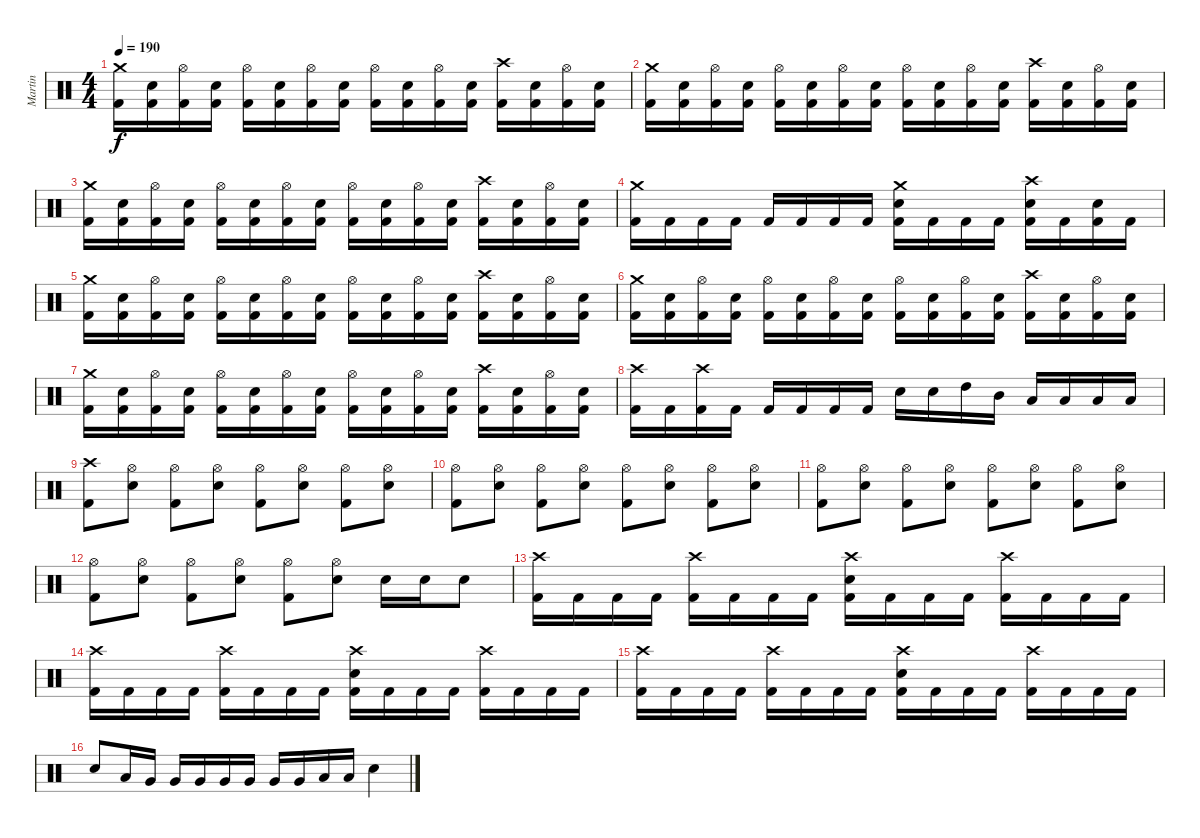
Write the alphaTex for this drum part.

\track ("Martin" "Martin") {instrument percussion}
\staff {score}
\articulation defaults
\ts (4 4)
\tempo 190
\clef neutral
\ks c
("Crash medium (hit)" "Kick (hit) 2").16{dy f} ("Snare (hit) 2" "Kick (hit) 2").16 ("Hi-Hat (open)" "Kick (hit) 2").16 ("Snare (hit) 2" "Kick (hit) 2").16 ("Hi-Hat (open)" "Kick (hit) 2").16 ("Snare (hit) 2" "Kick (hit) 2").16 ("Hi-Hat (open)" "Kick (hit) 2").16 ("Snare (hit) 2" "Kick (hit) 2").16 ("Hi-Hat (open)" "Kick (hit) 2").16 ("Snare (hit) 2" "Kick (hit) 2").16 ("Hi-Hat (open)" "Kick (hit) 2").16 ("Snare (hit) 2" "Kick (hit) 2").16 ("Crash high (hit)" "Kick (hit) 2").16 ("Snare (hit) 2" "Kick (hit) 2").16 ("Hi-Hat (open)" "Kick (hit) 2").16 ("Snare (hit) 2" "Kick (hit) 2").16 |
("Crash medium (hit)" "Kick (hit) 2").16 ("Snare (hit) 2" "Kick (hit) 2").16 ("Hi-Hat (open)" "Kick (hit) 2").16 ("Snare (hit) 2" "Kick (hit) 2").16 ("Hi-Hat (open)" "Kick (hit) 2").16 ("Snare (hit) 2" "Kick (hit) 2").16 ("Hi-Hat (open)" "Kick (hit) 2").16 ("Snare (hit) 2" "Kick (hit) 2").16 ("Hi-Hat (open)" "Kick (hit) 2").16 ("Snare (hit) 2" "Kick (hit) 2").16 ("Hi-Hat (open)" "Kick (hit) 2").16 ("Snare (hit) 2" "Kick (hit) 2").16 ("Crash high (hit)" "Kick (hit) 2").16 ("Snare (hit) 2" "Kick (hit) 2").16 ("Hi-Hat (open)" "Kick (hit) 2").16 ("Snare (hit) 2" "Kick (hit) 2").16 |
("Crash medium (hit)" "Kick (hit) 2").16 ("Snare (hit) 2" "Kick (hit) 2").16 ("Hi-Hat (open)" "Kick (hit) 2").16 ("Snare (hit) 2" "Kick (hit) 2").16 ("Hi-Hat (open)" "Kick (hit) 2").16 ("Snare (hit) 2" "Kick (hit) 2").16 ("Hi-Hat (open)" "Kick (hit) 2").16 ("Snare (hit) 2" "Kick (hit) 2").16 ("Hi-Hat (open)" "Kick (hit) 2").16 ("Snare (hit) 2" "Kick (hit) 2").16 ("Hi-Hat (open)" "Kick (hit) 2").16 ("Snare (hit) 2" "Kick (hit) 2").16 ("Crash high (hit)" "Kick (hit) 2").16 ("Snare (hit) 2" "Kick (hit) 2").16 ("Hi-Hat (open)" "Kick (hit) 2").16 ("Snare (hit) 2" "Kick (hit) 2").16 |
("Crash medium (hit)" "Kick (hit) 2").16 "Kick (hit) 2".16 "Kick (hit) 2".16 "Kick (hit) 2".16 "Kick (hit) 2".16 "Kick (hit) 2".16 "Kick (hit) 2".16 "Kick (hit) 2".16 ("Crash medium (hit)" "Snare (hit) 2" "Kick (hit) 2").16 "Kick (hit) 2".16 "Kick (hit) 2".16 "Kick (hit) 2".16 ("Crash high (hit)" "Snare (hit) 2" "Kick (hit) 2").16 "Kick (hit) 2".16 ("Snare (hit) 2" "Kick (hit) 2").16 "Kick (hit) 2".16 |
("Crash medium (hit)" "Kick (hit) 2").16 ("Snare (hit) 2" "Kick (hit) 2").16 ("Hi-Hat (open)" "Kick (hit) 2").16 ("Snare (hit) 2" "Kick (hit) 2").16 ("Hi-Hat (open)" "Kick (hit) 2").16 ("Snare (hit) 2" "Kick (hit) 2").16 ("Hi-Hat (open)" "Kick (hit) 2").16 ("Snare (hit) 2" "Kick (hit) 2").16 ("Hi-Hat (open)" "Kick (hit) 2").16 ("Snare (hit) 2" "Kick (hit) 2").16 ("Hi-Hat (open)" "Kick (hit) 2").16 ("Snare (hit) 2" "Kick (hit) 2").16 ("Crash high (hit)" "Kick (hit) 2").16 ("Snare (hit) 2" "Kick (hit) 2").16 ("Hi-Hat (open)" "Kick (hit) 2").16 ("Snare (hit) 2" "Kick (hit) 2").16 |
("Crash medium (hit)" "Kick (hit) 2").16 ("Snare (hit) 2" "Kick (hit) 2").16 ("Hi-Hat (open)" "Kick (hit) 2").16 ("Snare (hit) 2" "Kick (hit) 2").16 ("Hi-Hat (open)" "Kick (hit) 2").16 ("Snare (hit) 2" "Kick (hit) 2").16 ("Hi-Hat (open)" "Kick (hit) 2").16 ("Snare (hit) 2" "Kick (hit) 2").16 ("Hi-Hat (open)" "Kick (hit) 2").16 ("Snare (hit) 2" "Kick (hit) 2").16 ("Hi-Hat (open)" "Kick (hit) 2").16 ("Snare (hit) 2" "Kick (hit) 2").16 ("Crash high (hit)" "Kick (hit) 2").16 ("Snare (hit) 2" "Kick (hit) 2").16 ("Hi-Hat (open)" "Kick (hit) 2").16 ("Snare (hit) 2" "Kick (hit) 2").16 |
("Crash medium (hit)" "Kick (hit) 2").16 ("Snare (hit) 2" "Kick (hit) 2").16 ("Hi-Hat (open)" "Kick (hit) 2").16 ("Snare (hit) 2" "Kick (hit) 2").16 ("Hi-Hat (open)" "Kick (hit) 2").16 ("Snare (hit) 2" "Kick (hit) 2").16 ("Hi-Hat (open)" "Kick (hit) 2").16 ("Snare (hit) 2" "Kick (hit) 2").16 ("Hi-Hat (open)" "Kick (hit) 2").16 ("Snare (hit) 2" "Kick (hit) 2").16 ("Hi-Hat (open)" "Kick (hit) 2").16 ("Snare (hit) 2" "Kick (hit) 2").16 ("Crash high (hit)" "Kick (hit) 2").16 ("Snare (hit) 2" "Kick (hit) 2").16 ("Hi-Hat (open)" "Kick (hit) 2").16 ("Snare (hit) 2" "Kick (hit) 2").16 |
("Crash high (hit)" "Kick (hit) 2").16 "Kick (hit) 2".16 ("Crash high (hit)" "Kick (hit) 2").16 "Kick (hit) 2".16 "Kick (hit) 2".16 "Kick (hit) 2".16 "Kick (hit) 2".16 "Kick (hit) 2".16 "Snare (hit) 2".16 "Snare (hit) 2".16 "High Tom (hit)".16 "Mid Tom (hit)".16 "Low Tom (hit)".16 "Low Tom (hit)".16 "Low Tom (hit)".16 "Low Tom (hit)".16 |
("Crash high (hit)" "Kick (hit) 2").8 ("Hi-Hat (open)" "Snare (hit) 2").8 ("Hi-Hat (open)" "Kick (hit) 2").8 ("Hi-Hat (open)" "Snare (hit) 2").8 ("Hi-Hat (open)" "Kick (hit) 2").8 ("Hi-Hat (open)" "Snare (hit) 2").8 ("Hi-Hat (open)" "Kick (hit) 2").8 ("Hi-Hat (open)" "Snare (hit) 2").8 |
("Hi-Hat (open)" "Kick (hit) 2").8 ("Hi-Hat (open)" "Snare (hit) 2").8 ("Hi-Hat (open)" "Kick (hit) 2").8 ("Hi-Hat (open)" "Snare (hit) 2").8 ("Hi-Hat (open)" "Kick (hit) 2").8 ("Hi-Hat (open)" "Snare (hit) 2").8 ("Hi-Hat (open)" "Kick (hit) 2").8 ("Hi-Hat (open)" "Snare (hit) 2").8 |
("Hi-Hat (open)" "Kick (hit) 2").8 ("Hi-Hat (open)" "Snare (hit) 2").8 ("Hi-Hat (open)" "Kick (hit) 2").8 ("Hi-Hat (open)" "Snare (hit) 2").8 ("Hi-Hat (open)" "Kick (hit) 2").8 ("Hi-Hat (open)" "Snare (hit) 2").8 ("Hi-Hat (open)" "Kick (hit) 2").8 ("Hi-Hat (open)" "Snare (hit) 2").8 |
("Hi-Hat (open)" "Kick (hit) 2").8 ("Hi-Hat (open)" "Snare (hit) 2").8 ("Hi-Hat (open)" "Kick (hit) 2").8 ("Hi-Hat (open)" "Snare (hit) 2").8 ("Hi-Hat (open)" "Kick (hit) 2").8 ("Hi-Hat (open)" "Snare (hit) 2").8 "Snare (hit) 2".16 "Snare (hit) 2".16 "Snare (hit) 2".8 |
("Crash high (hit)" "Kick (hit) 2").16 "Kick (hit) 2".16 "Kick (hit) 2".16 "Kick (hit) 2".16 ("Crash high (hit)" "Kick (hit) 2").16 "Kick (hit) 2".16 "Kick (hit) 2".16 "Kick (hit) 2".16 ("Crash high (hit)" "Snare (hit) 2" "Kick (hit) 2").16 "Kick (hit) 2".16 "Kick (hit) 2".16 "Kick (hit) 2".16 ("Crash high (hit)" "Kick (hit) 2").16 "Kick (hit) 2".16 "Kick (hit) 2".16 "Kick (hit) 2".16 |
("Crash high (hit)" "Kick (hit) 2").16 "Kick (hit) 2".16 "Kick (hit) 2".16 "Kick (hit) 2".16 ("Crash high (hit)" "Kick (hit) 2").16 "Kick (hit) 2".16 "Kick (hit) 2".16 "Kick (hit) 2".16 ("Crash high (hit)" "Snare (hit) 2" "Kick (hit) 2").16 "Kick (hit) 2".16 "Kick (hit) 2".16 "Kick (hit) 2".16 ("Crash high (hit)" "Kick (hit) 2").16 "Kick (hit) 2".16 "Kick (hit) 2".16 "Kick (hit) 2".16 |
("Crash high (hit)" "Kick (hit) 2").16 "Kick (hit) 2".16 "Kick (hit) 2".16 "Kick (hit) 2".16 ("Crash high (hit)" "Kick (hit) 2").16 "Kick (hit) 2".16 "Kick (hit) 2".16 "Kick (hit) 2".16 ("Crash high (hit)" "Snare (hit) 2" "Kick (hit) 2").16 "Kick (hit) 2".16 "Kick (hit) 2".16 "Kick (hit) 2".16 ("Crash high (hit)" "Kick (hit) 2").16 "Kick (hit) 2".16 "Kick (hit) 2".16 "Kick (hit) 2".16 |
"Snare (hit) 2".8 "Low Tom (hit)".16 "Very Low Tom (hit)".16 "Very Low Tom (hit)".16 "Very Low Tom (hit)".16 "Very Low Tom (hit)".16 "Very Low Tom (hit)".16 "Very Low Tom (hit)".16 "Very Low Tom (hit)".16 "Low Tom (hit)".16 "Low Tom (hit)".16 "Snare (hit) 2".4
